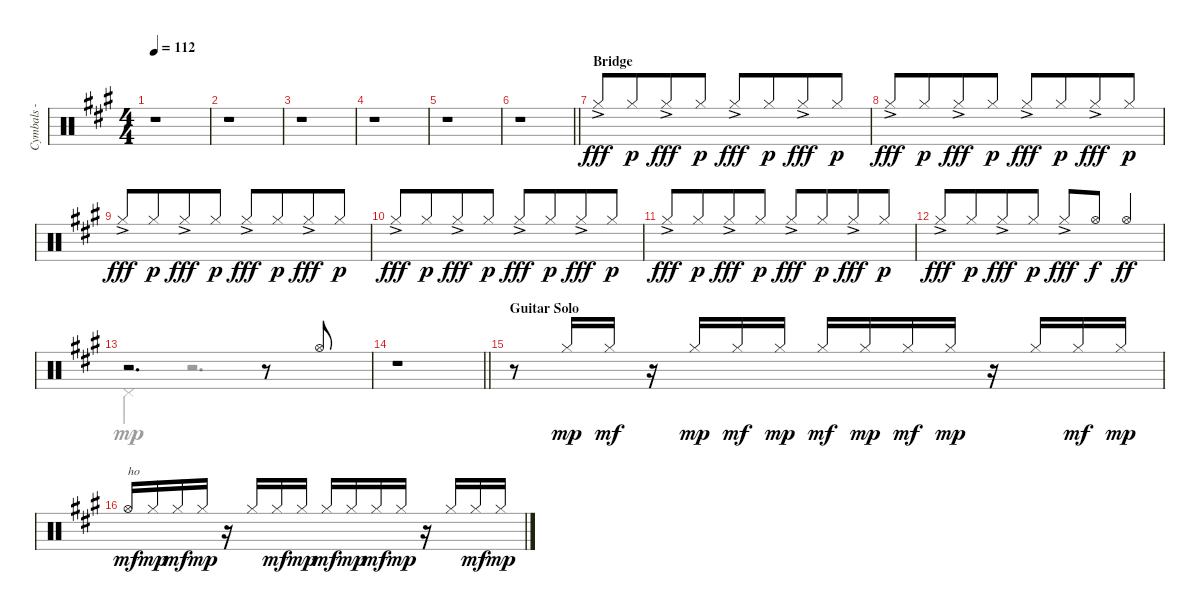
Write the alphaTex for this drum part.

\track ("Cymbals - hi-hat" "Cymbals - ") {instrument percussion}
\staff {score}
\articulation defaults
\voice
\ts (4 4)
\tempo 112
\clef neutral
\ks f#minor
r.1{dy ff} |
r.1 |
r.1 |
r.1 |
r.1 |
\barLineRight lightlight
r.1 |
\section ("" "Bridge")
"Hi-Hat (closed)"{ac}.8{dy fff volume 4 beam Up} "Hi-Hat (closed)".8{dy p beam Up beam merge} "Hi-Hat (closed)"{ac}.8{dy fff beam Up} "Hi-Hat (closed)".8{dy p beam Up} "Hi-Hat (closed)"{ac}.8{dy fff beam Up} "Hi-Hat (closed)".8{dy p beam Up beam merge} "Hi-Hat (closed)"{ac}.8{dy fff beam Up} "Hi-Hat (closed)".8{dy p beam Up} |
"Hi-Hat (closed)"{ac}.8{dy fff beam Up} "Hi-Hat (closed)".8{dy p beam Up beam merge} "Hi-Hat (closed)"{ac}.8{dy fff beam Up} "Hi-Hat (closed)".8{dy p beam Up} "Hi-Hat (closed)"{ac}.8{dy fff beam Up} "Hi-Hat (closed)".8{dy p beam Up beam merge} "Hi-Hat (closed)"{ac}.8{dy fff beam Up} "Hi-Hat (closed)".8{dy p beam Up} |
"Hi-Hat (closed)"{ac}.8{dy fff beam Up} "Hi-Hat (closed)".8{dy p beam Up beam merge} "Hi-Hat (closed)"{ac}.8{dy fff beam Up} "Hi-Hat (closed)".8{dy p beam Up} "Hi-Hat (closed)"{ac}.8{dy fff beam Up} "Hi-Hat (closed)".8{dy p beam Up beam merge} "Hi-Hat (closed)"{ac}.8{dy fff beam Up} "Hi-Hat (closed)".8{dy p beam Up} |
"Hi-Hat (closed)"{ac}.8{dy fff beam Up} "Hi-Hat (closed)".8{dy p beam Up beam merge} "Hi-Hat (closed)"{ac}.8{dy fff beam Up} "Hi-Hat (closed)".8{dy p beam Up} "Hi-Hat (closed)"{ac}.8{dy fff beam Up} "Hi-Hat (closed)".8{dy p beam Up beam merge} "Hi-Hat (closed)"{ac}.8{dy fff beam Up} "Hi-Hat (closed)".8{dy p beam Up} |
"Hi-Hat (closed)"{ac}.8{dy fff beam Up} "Hi-Hat (closed)".8{dy p beam Up beam merge} "Hi-Hat (closed)"{ac}.8{dy fff beam Up} "Hi-Hat (closed)".8{dy p beam Up} "Hi-Hat (closed)"{ac}.8{dy fff beam Up} "Hi-Hat (closed)".8{dy p beam Up beam merge} "Hi-Hat (closed)"{ac}.8{dy fff beam Up} "Hi-Hat (closed)".8{dy p beam Up} |
"Hi-Hat (closed)"{ac}.8{dy fff beam Up} "Hi-Hat (closed)".8{dy p beam Up beam merge} "Hi-Hat (closed)"{ac}.8{dy fff beam Up} "Hi-Hat (closed)".8{dy p beam Up} "Hi-Hat (closed)"{ac}.8{dy fff beam Up} "Hi-Hat (open)".8{dy f beam Up beam merge} "Hi-Hat (open)".4{dy ff beam Up} |
r.2{d} r.8 "Hi-Hat (open)".8{beam Up} |
\barLineRight lightlight
r.1 |
\section ("" "Guitar Solo")
r.8 "Hi-Hat (closed)".16{dy mp beam Up} "Hi-Hat (closed)".16{dy mf beam Up} r.16 "Hi-Hat (closed)".16{dy mp beam Up} "Hi-Hat (closed)".16{dy mf beam Up} "Hi-Hat (closed)".16{dy mp beam Up} "Hi-Hat (closed)".16{dy mf beam Up} "Hi-Hat (closed)".16{dy mp beam Up} "Hi-Hat (closed)".16{dy mf beam Up} "Hi-Hat (closed)".16{dy mp beam Up} r.16 "Hi-Hat (closed)".16{beam Up} "Hi-Hat (closed)".16{dy mf beam Up} "Hi-Hat (closed)".16{dy mp beam Up} |
"Hi-Hat (open)".16{txt "ho" dy mf beam Up} "Hi-Hat (closed)".16{dy mp beam Up} "Hi-Hat (closed)".16{dy mf beam Up} "Hi-Hat (closed)".16{dy mp beam Up} r.16 "Hi-Hat (closed)".16{beam Up} "Hi-Hat (closed)".16{dy mf beam Up} "Hi-Hat (closed)".16{dy mp beam Up} "Hi-Hat (closed)".16{dy mf beam Up} "Hi-Hat (closed)".16{dy mp beam Up} "Hi-Hat (closed)".16{dy mf beam Up} "Hi-Hat (closed)".16{dy mp beam Up} r.16 "Hi-Hat (closed)".16{beam Up} "Hi-Hat (closed)".16{dy mf beam Up} "Hi-Hat (closed)".16{dy mp beam Up}
\voice
\clef neutral
\ottava regular
\simile none
\ks f#minor
|
|
|
|
|
\barLineRight lightlight
|
|
|
|
|
|
|
"Pedal Hi-Hat (hit)".4 r.2{d} |
\barLineRight lightlight
|
|
